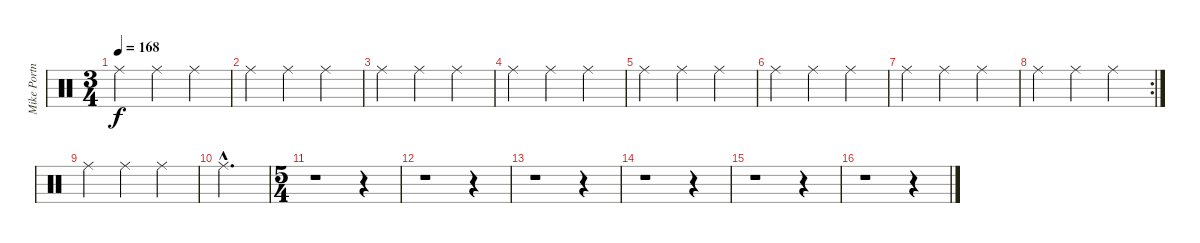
\track ("Mike Portnoy - Drum" "Mike Portn") {instrument percussion}
\staff {score}
\articulation defaults
\ts (3 4)
\tempo 168
\clef neutral
\ks c "Ride (middle)".4{dy f} "Ride (middle)".4 "Ride (middle)".4
|
"Ride (middle)".4 "Ride (middle)".4 "Ride (middle)".4 |
"Ride (middle)".4 "Ride (middle)".4 "Ride (middle)".4 |
"Ride (middle)".4 "Ride (middle)".4 "Ride (middle)".4 |
"Ride (middle)".4 "Ride (middle)".4 "Ride (middle)".4 |
"Ride (middle)".4 "Ride (middle)".4 "Ride (middle)".4 |
"Ride (middle)".4 "Ride (middle)".4 "Ride (middle)".4 |
\rc 2 "Ride (middle)".4 "Ride (middle)".4 "Ride (middle)".4
|
"Ride (middle)".4 "Ride (middle)".4 "Ride (middle)".4 |
"Ride (middle)"{hac}.2{d} |
\ts (5 4)
r.1 r.4 |
r.1 r.4 |
r.1 r.4 |
r.1 r.4 |
r.1 r.4 |
r.1 r.4
